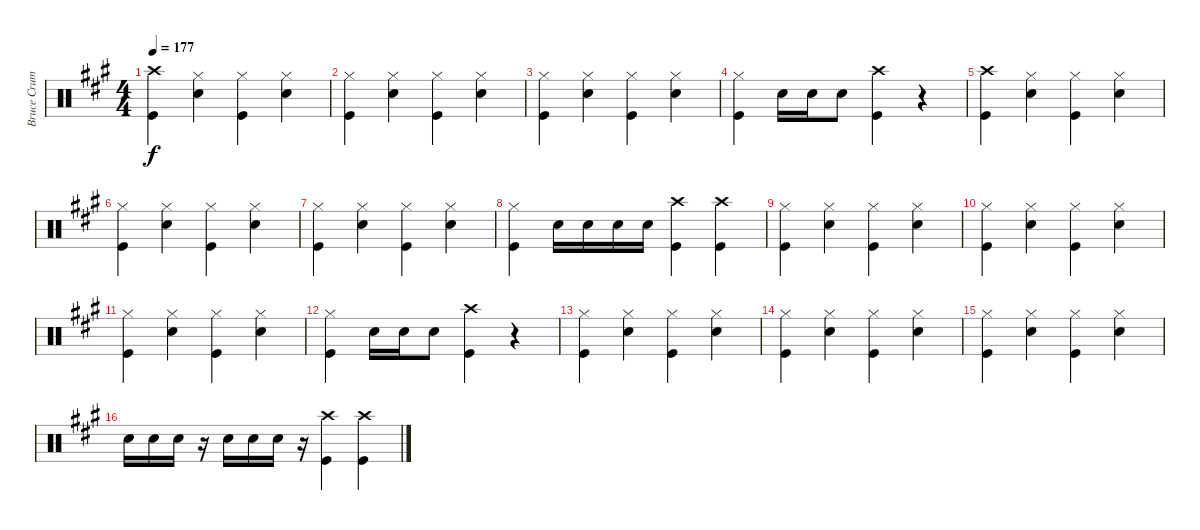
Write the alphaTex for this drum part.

\track ("Bruce Crump Drums" "Bruce Crum") {instrument percussion}
\staff {score}
\articulation defaults
\ts (4 4)
\tempo 177
\clef neutral
\ks a
("Crash high (hit)" "Kick (hit)").4{dy f} ("Hi-Hat (closed)" "Snare (hit) 2").4 ("Hi-Hat (closed)" "Kick (hit)").4 ("Hi-Hat (closed)" "Snare (hit) 2").4 |
("Hi-Hat (closed)" "Kick (hit)").4 ("Hi-Hat (closed)" "Snare (hit) 2").4 ("Hi-Hat (closed)" "Kick (hit)").4 ("Hi-Hat (closed)" "Snare (hit) 2").4 |
("Hi-Hat (closed)" "Kick (hit)").4 ("Hi-Hat (closed)" "Snare (hit) 2").4 ("Hi-Hat (closed)" "Kick (hit)").4 ("Hi-Hat (closed)" "Snare (hit) 2").4 |
("Hi-Hat (closed)" "Kick (hit)").4 "Snare (hit) 2".16 "Snare (hit) 2".16 "Snare (hit) 2".8 ("Crash high (hit)" "Kick (hit)").4 r.4 |
("Crash high (hit)" "Kick (hit)").4 ("Hi-Hat (closed)" "Snare (hit) 2").4 ("Hi-Hat (closed)" "Kick (hit)").4 ("Hi-Hat (closed)" "Snare (hit) 2").4 |
("Hi-Hat (closed)" "Kick (hit)").4 ("Hi-Hat (closed)" "Snare (hit) 2").4 ("Hi-Hat (closed)" "Kick (hit)").4 ("Hi-Hat (closed)" "Snare (hit) 2").4 |
("Hi-Hat (closed)" "Kick (hit)").4 ("Hi-Hat (closed)" "Snare (hit) 2").4 ("Hi-Hat (closed)" "Kick (hit)").4 ("Hi-Hat (closed)" "Snare (hit) 2").4 |
("Hi-Hat (closed)" "Kick (hit)").4 "Snare (hit) 2".16 "Snare (hit) 2".16 "Snare (hit) 2".16 "Snare (hit) 2".16 ("Crash high (hit)" "Kick (hit)").4 ("Crash high (hit)" "Kick (hit)").4 |
("Hi-Hat (closed)" "Kick (hit)").4 ("Hi-Hat (closed)" "Snare (hit) 2").4 ("Hi-Hat (closed)" "Kick (hit)").4 ("Hi-Hat (closed)" "Snare (hit) 2").4 |
("Hi-Hat (closed)" "Kick (hit)").4 ("Hi-Hat (closed)" "Snare (hit) 2").4 ("Hi-Hat (closed)" "Kick (hit)").4 ("Hi-Hat (closed)" "Snare (hit) 2").4 |
("Hi-Hat (closed)" "Kick (hit)").4 ("Hi-Hat (closed)" "Snare (hit) 2").4 ("Hi-Hat (closed)" "Kick (hit)").4 ("Hi-Hat (closed)" "Snare (hit) 2").4 |
("Hi-Hat (closed)" "Kick (hit)").4 "Snare (hit) 2".16 "Snare (hit) 2".16 "Snare (hit) 2".8 ("Crash high (hit)" "Kick (hit)").4 r.4 |
("Hi-Hat (closed)" "Kick (hit)").4 ("Hi-Hat (closed)" "Snare (hit) 2").4 ("Hi-Hat (closed)" "Kick (hit)").4 ("Hi-Hat (closed)" "Snare (hit) 2").4 |
("Hi-Hat (closed)" "Kick (hit)").4 ("Hi-Hat (closed)" "Snare (hit) 2").4 ("Hi-Hat (closed)" "Kick (hit)").4 ("Hi-Hat (closed)" "Snare (hit) 2").4 |
("Hi-Hat (closed)" "Kick (hit)").4 ("Hi-Hat (closed)" "Snare (hit) 2").4 ("Hi-Hat (closed)" "Kick (hit)").4 ("Hi-Hat (closed)" "Snare (hit) 2").4 |
"Snare (hit) 2".16 "Snare (hit) 2".16 "Snare (hit) 2".16 r.16 "Snare (hit) 2".16 "Snare (hit) 2".16 "Snare (hit) 2".16 r.16 ("Crash high (hit)" "Kick (hit)").4 ("Crash high (hit)" "Kick (hit)").4
